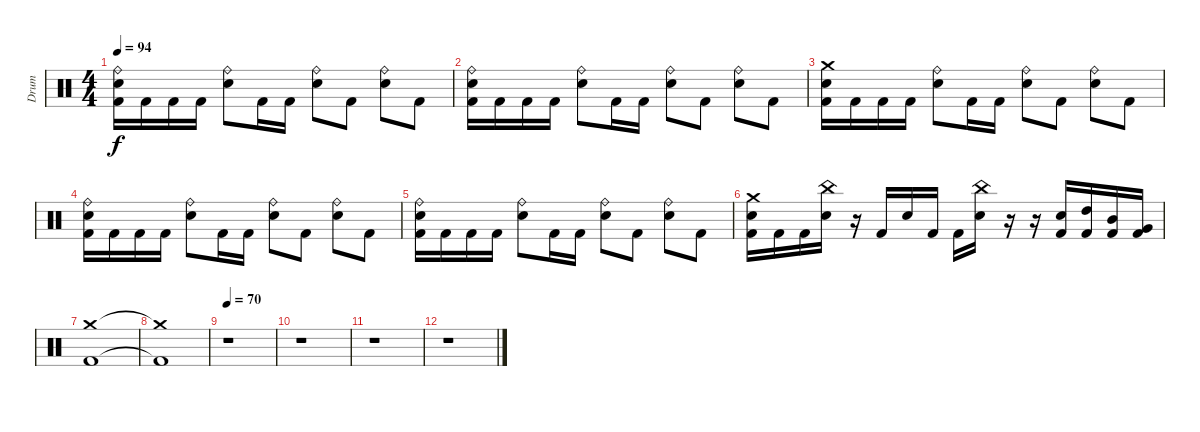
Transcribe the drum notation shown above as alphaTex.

\track ("Drum" "Drum") {instrument percussion}
\staff {score}
\articulation defaults
\ts (4 4)
\tempo 94
\clef neutral
\ks c
("Kick (hit) 2" "Electric Snare (hit)" "Ride (bell)").16{dy f} "Kick (hit) 2".16 "Kick (hit) 2".16 "Kick (hit) 2".16 ("Electric Snare (hit)" "Ride (bell)").8 "Kick (hit) 2".16 "Kick (hit) 2".16 ("Electric Snare (hit)" "Ride (bell)").8 "Kick (hit) 2".8 ("Electric Snare (hit)" "Ride (bell)").8 "Kick (hit) 2".8 |
("Kick (hit) 2" "Electric Snare (hit)" "Ride (bell)").16 "Kick (hit) 2".16 "Kick (hit) 2".16 "Kick (hit) 2".16 ("Electric Snare (hit)" "Ride (bell)").8 "Kick (hit) 2".16 "Kick (hit) 2".16 ("Electric Snare (hit)" "Ride (bell)").8 "Kick (hit) 2".8 ("Electric Snare (hit)" "Ride (bell)").8 "Kick (hit) 2".8 |
("Kick (hit) 2" "Electric Snare (hit)" "Crash medium (hit)").16 "Kick (hit) 2".16 "Kick (hit) 2".16 "Kick (hit) 2".16 ("Electric Snare (hit)" "Ride (bell)").8 "Kick (hit) 2".16 "Kick (hit) 2".16 ("Electric Snare (hit)" "Ride (bell)").8 "Kick (hit) 2".8 ("Electric Snare (hit)" "Ride (bell)").8 "Kick (hit) 2".8 |
("Kick (hit) 2" "Electric Snare (hit)" "Ride (bell)").16 "Kick (hit) 2".16 "Kick (hit) 2".16 "Kick (hit) 2".16 ("Electric Snare (hit)" "Ride (bell)").8 "Kick (hit) 2".16 "Kick (hit) 2".16 ("Electric Snare (hit)" "Ride (bell)").8 "Kick (hit) 2".8 ("Electric Snare (hit)" "Ride (bell)").8 "Kick (hit) 2".8 |
("Kick (hit) 2" "Electric Snare (hit)" "Ride (bell)").16 "Kick (hit) 2".16 "Kick (hit) 2".16 "Kick (hit) 2".16 ("Electric Snare (hit)" "Ride (bell)").8 "Kick (hit) 2".16 "Kick (hit) 2".16 ("Electric Snare (hit)" "Ride (bell)").8 "Kick (hit) 2".8 ("Electric Snare (hit)" "Ride (bell)").8 "Kick (hit) 2".8 |
("Kick (hit) 2" "Electric Snare (hit)" "Crash medium (hit)").16 "Kick (hit) 2".16 "Kick (hit) 2".16 ("Electric Snare (hit)" "China (hit)").16 r.16 "Kick (hit) 2".16 "Electric Snare (hit)".16 "Kick (hit) 2".16 "Kick (hit) 2".16 ("Electric Snare (hit)" "China (hit)").16 r.16 r.16 ("Kick (hit) 2" "Electric Snare (hit)").16 ("Kick (hit) 2" "High Tom (hit)").16 ("Kick (hit) 2" "Mid Tom (hit)").16 ("Kick (hit) 2" "Very Low Tom (hit)").16 |
("Kick (hit) 2" "Crash medium (hit)").1 |
("Kick (hit) 2"{t} "Crash medium (hit)"{t}).1 |
\tempo 70
r.1 |
r.1 |
r.1 |
r.1
